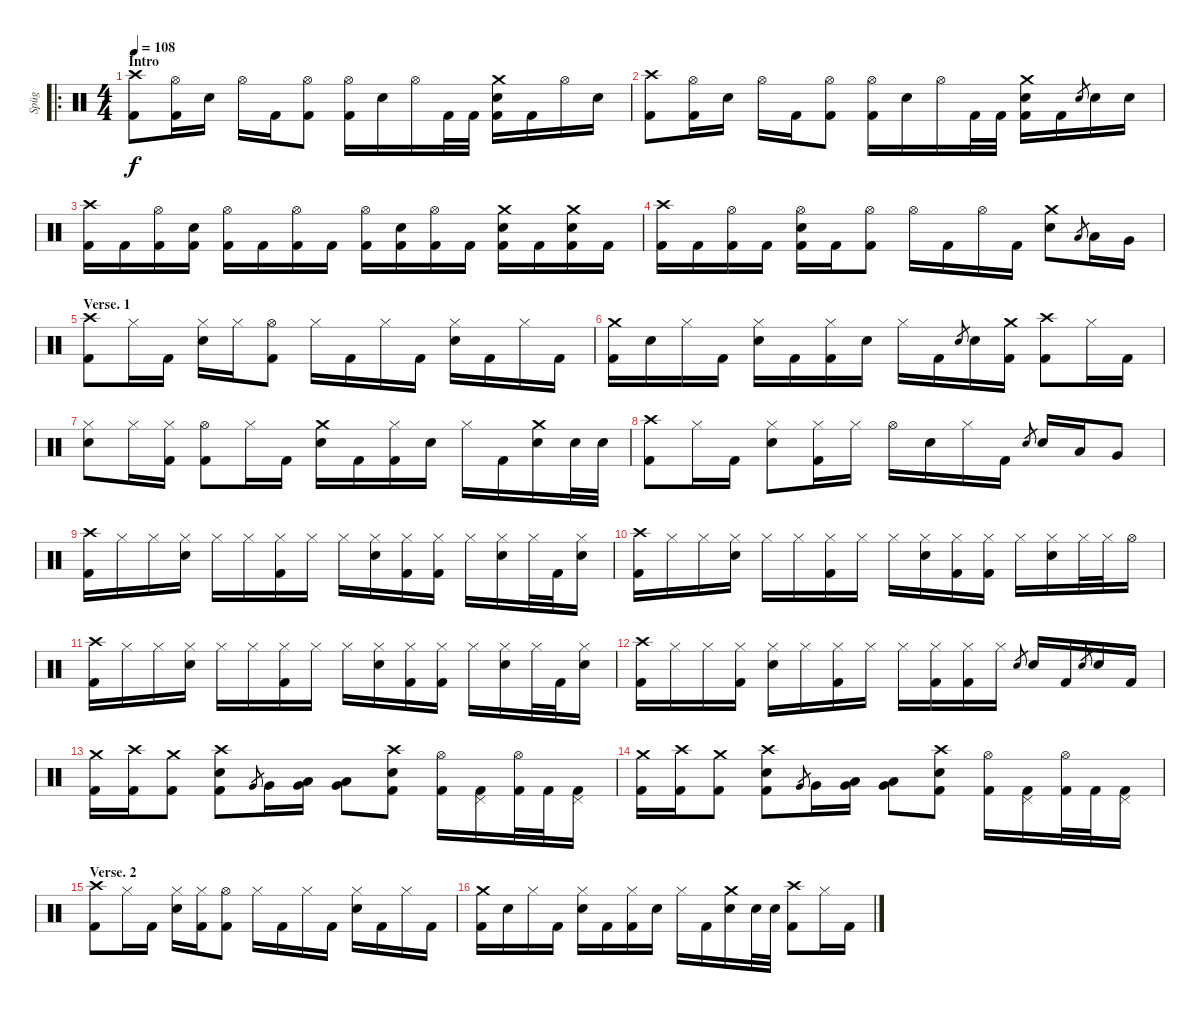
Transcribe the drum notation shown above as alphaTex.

\track ("Spüg" "Spüg") {instrument percussion}
\staff {score}
\articulation defaults
\ro
\ts (4 4)
\section ("" "Intro")
\tempo 108
\tempo 86
\tempo 108
\clef neutral
\ks c
("Crash high (hit)" "Kick (hit) 2").8{dy f} ("Hi-Hat (open)" "Kick (hit) 2").16 "Electric Snare (hit)".16 "Hi-Hat (open)".16 "Kick (hit) 2".16 ("Hi-Hat (open)" "Kick (hit) 2").8 ("Hi-Hat (open)" "Kick (hit) 2").16 "Electric Snare (hit)".16 "Hi-Hat (open)".16 "Kick (hit) 2".32 "Kick (hit) 2".32 ("Crash medium (hit)" "Electric Snare (hit)" "Kick (hit) 2").16 "Kick (hit) 2".16 "Hi-Hat (open)".16 "Electric Snare (hit)".16 |
("Crash high (hit)" "Kick (hit) 2").8 ("Hi-Hat (open)" "Kick (hit) 2").16 "Electric Snare (hit)".16 "Hi-Hat (open)".16 "Kick (hit) 2".16 ("Hi-Hat (open)" "Kick (hit) 2").8 ("Hi-Hat (open)" "Kick (hit) 2").16 "Electric Snare (hit)".16 "Hi-Hat (open)".16 "Kick (hit) 2".32 "Kick (hit) 2".32 ("Crash medium (hit)" "Electric Snare (hit)" "Kick (hit) 2").16 "Kick (hit) 2".16 "Electric Snare (hit)".8{gr} "Electric Snare (hit)".16 "Electric Snare (hit)".16 |
("Crash high (hit)" "Kick (hit) 2").16 "Kick (hit) 2".16 ("Hi-Hat (open)" "Kick (hit) 2").16 ("Electric Snare (hit)" "Kick (hit) 2").16 ("Hi-Hat (open)" "Kick (hit) 2").16 "Kick (hit) 2".16 ("Hi-Hat (open)" "Kick (hit) 2").16 "Kick (hit) 2".16 ("Hi-Hat (open)" "Kick (hit) 2").16 ("Electric Snare (hit)" "Kick (hit) 2").16 ("Hi-Hat (open)" "Kick (hit) 2").16 "Kick (hit) 2".16 ("Crash medium (hit)" "Electric Snare (hit)" "Kick (hit) 2").16 "Kick (hit) 2".16 ("Crash medium (hit)" "Electric Snare (hit)" "Kick (hit) 2").16 "Kick (hit) 2".16 |
("Crash high (hit)" "Kick (hit) 2").16 "Kick (hit) 2".16 ("Hi-Hat (open)" "Kick (hit) 2").16 "Kick (hit) 2".16 ("Hi-Hat (open)" "Electric Snare (hit)" "Kick (hit) 2").16 "Kick (hit) 2".16 ("Hi-Hat (open)" "Kick (hit) 2").8 "Hi-Hat (open)".16 "Kick (hit) 2".16 "Hi-Hat (open)".16 "Kick (hit) 2".16 ("Crash medium (hit)" "Electric Snare (hit)").8 "Low Tom (hit)".8{gr} "Low Tom (hit)".16 "Very Low Tom (hit)".16 |
\section ("" "Verse. 1")
("Crash high (hit)" "Kick (hit) 2").8 "Hi-Hat (closed)".16 "Kick (hit) 2".16 ("Hi-Hat (closed)" "Electric Snare (hit)").16 "Hi-Hat (closed)".16 ("Hi-Hat (open)" "Kick (hit) 2").8 "Hi-Hat (closed)".16 "Kick (hit) 2".16 "Hi-Hat (closed)".16 "Kick (hit) 2".16 ("Hi-Hat (closed)" "Electric Snare (hit)").16 "Kick (hit) 2".16 "Hi-Hat (closed)".16 "Kick (hit) 2".16 |
("Crash medium (hit)" "Kick (hit) 2").16 "Electric Snare (hit)".16 "Hi-Hat (closed)".16 "Kick (hit) 2".16 ("Hi-Hat (closed)" "Electric Snare (hit)").16 "Kick (hit) 2".16 ("Hi-Hat (closed)" "Kick (hit) 2").16 "Electric Snare (hit)".16 "Hi-Hat (closed)".16 "Kick (hit) 2".16 "Electric Snare (hit)".8{gr} "Electric Snare (hit)".16 ("Crash medium (hit)" "Kick (hit) 2").16 ("Crash high (hit)" "Kick (hit) 2").8 "Hi-Hat (closed)".16 "Kick (hit) 2".16 |
("Hi-Hat (closed)" "Electric Snare (hit)").8 "Hi-Hat (closed)".16 ("Hi-Hat (closed)" "Kick (hit) 2").16 ("Hi-Hat (open)" "Kick (hit) 2").8 "Hi-Hat (closed)".16 "Kick (hit) 2".16 ("Crash medium (hit)" "Electric Snare (hit)").16 "Kick (hit) 2".16 ("Hi-Hat (closed)" "Kick (hit) 2").16 "Electric Snare (hit)".16 "Hi-Hat (closed)".16 "Kick (hit) 2".16 ("Crash medium (hit)" "Electric Snare (hit)").16 "Electric Snare (hit)".32 "Electric Snare (hit)".32 |
("Crash high (hit)" "Kick (hit) 2").8 "Hi-Hat (closed)".16 "Kick (hit) 2".16 ("Hi-Hat (closed)" "Electric Snare (hit)").8 ("Hi-Hat (closed)" "Kick (hit) 2").16 "Hi-Hat (closed)".16 "Hi-Hat (open)".16 "Electric Snare (hit)".16 "Hi-Hat (closed)".16 "Kick (hit) 2".16 "Electric Snare (hit)".8{gr} "Electric Snare (hit)".16 "Low Tom (hit)".16 "Very Low Tom (hit)".8 |
("Crash high (hit)" "Kick (hit) 2").16 "Hi-Hat (closed)".16 "Hi-Hat (closed)".16 ("Hi-Hat (closed)" "Electric Snare (hit)").16 "Hi-Hat (closed)".16 "Hi-Hat (closed)".16 ("Hi-Hat (closed)" "Kick (hit) 2").16 "Hi-Hat (closed)".16 "Hi-Hat (closed)".16 ("Hi-Hat (closed)" "Electric Snare (hit)").16 ("Hi-Hat (closed)" "Kick (hit) 2").16 ("Hi-Hat (closed)" "Kick (hit) 2").16 "Hi-Hat (closed)".16 ("Hi-Hat (closed)" "Electric Snare (hit)").16 "Hi-Hat (closed)".32 "Kick (hit) 2".32 ("Hi-Hat (closed)" "Electric Snare (hit)").16 |
("Crash high (hit)" "Kick (hit) 2").16 "Hi-Hat (closed)".16 "Hi-Hat (closed)".16 ("Hi-Hat (closed)" "Electric Snare (hit)").16 "Hi-Hat (closed)".16 "Hi-Hat (closed)".16 ("Hi-Hat (closed)" "Kick (hit) 2").16 "Hi-Hat (closed)".16 "Hi-Hat (closed)".16 ("Hi-Hat (closed)" "Electric Snare (hit)").16 ("Hi-Hat (closed)" "Kick (hit) 2").16 ("Hi-Hat (closed)" "Kick (hit) 2").16 "Hi-Hat (closed)".16 ("Hi-Hat (closed)" "Electric Snare (hit)").16 "Hi-Hat (closed)".32 "Hi-Hat (closed)".32 "Hi-Hat (open)".16 |
("Crash high (hit)" "Kick (hit) 2").16 "Hi-Hat (closed)".16 "Hi-Hat (closed)".16 ("Hi-Hat (closed)" "Electric Snare (hit)").16 "Hi-Hat (closed)".16 "Hi-Hat (closed)".16 ("Hi-Hat (closed)" "Kick (hit) 2").16 "Hi-Hat (closed)".16 "Hi-Hat (closed)".16 ("Hi-Hat (closed)" "Electric Snare (hit)").16 ("Hi-Hat (closed)" "Kick (hit) 2").16 ("Hi-Hat (closed)" "Kick (hit) 2").16 "Hi-Hat (closed)".16 ("Hi-Hat (closed)" "Electric Snare (hit)").16 "Hi-Hat (closed)".32 "Kick (hit) 2".32 ("Hi-Hat (closed)" "Electric Snare (hit)").16 |
("Crash high (hit)" "Kick (hit) 2").16 "Hi-Hat (closed)".16 "Hi-Hat (closed)".16 ("Hi-Hat (closed)" "Kick (hit) 2").16 ("Hi-Hat (closed)" "Electric Snare (hit)").16 "Hi-Hat (closed)".16 ("Hi-Hat (closed)" "Kick (hit) 2").16 "Hi-Hat (closed)".16 "Hi-Hat (closed)".16 ("Hi-Hat (closed)" "Kick (hit) 2").16 ("Hi-Hat (closed)" "Kick (hit) 2").16 "Hi-Hat (closed)".16 "Electric Snare (hit)".8{gr} "Electric Snare (hit)".16 "Kick (hit) 2".16 "Electric Snare (hit)".8{gr} "Electric Snare (hit)".16 "Kick (hit) 2".16 |
("Crash medium (hit)" "Kick (hit) 2").16 ("Crash high (hit)" "Kick (hit) 2").16 ("Crash medium (hit)" "Kick (hit) 2").8 ("Crash high (hit)" "Electric Snare (hit)" "Kick (hit) 2").8 "Very Low Tom (hit)".8{gr} "Very Low Tom (hit)".16 ("Very Low Tom (hit)" "Low Floor Tom (hit)").16 ("Very Low Tom (hit)" "Low Floor Tom (hit)").8 ("Crash high (hit)" "Electric Snare (hit)" "Kick (hit) 2").8 ("Hi-Hat (open)" "Kick (hit) 2").16 ("Pedal Hi-Hat (hit)" "Kick (hit) 2").16 ("Hi-Hat (open)" "Kick (hit) 2").32 "Kick (hit) 2".32 ("Pedal Hi-Hat (hit)" "Kick (hit) 2").16 |
("Crash medium (hit)" "Kick (hit) 2").16 ("Crash high (hit)" "Kick (hit) 2").16 ("Crash medium (hit)" "Kick (hit) 2").8 ("Crash high (hit)" "Electric Snare (hit)" "Kick (hit) 2").8 "Very Low Tom (hit)".8{gr} "Very Low Tom (hit)".16 ("Very Low Tom (hit)" "Low Floor Tom (hit)").16 ("Very Low Tom (hit)" "Low Floor Tom (hit)").8 ("Crash high (hit)" "Electric Snare (hit)" "Kick (hit) 2").8 ("Hi-Hat (open)" "Kick (hit) 2").16 ("Pedal Hi-Hat (hit)" "Kick (hit) 2").16 ("Hi-Hat (open)" "Kick (hit) 2").32 "Kick (hit) 2".32 ("Pedal Hi-Hat (hit)" "Kick (hit) 2").16 |
\section ("" "Verse. 2")
("Crash high (hit)" "Kick (hit) 2").8 "Hi-Hat (closed)".16 "Kick (hit) 2".16 ("Hi-Hat (closed)" "Electric Snare (hit)").16 ("Hi-Hat (closed)" "Kick (hit) 2").16 ("Hi-Hat (open)" "Kick (hit) 2").8 "Hi-Hat (closed)".16 "Kick (hit) 2".16 "Hi-Hat (closed)".16 "Kick (hit) 2".16 ("Hi-Hat (closed)" "Electric Snare (hit)").16 "Kick (hit) 2".16 "Hi-Hat (closed)".16 "Kick (hit) 2".16 |
("Crash medium (hit)" "Kick (hit) 2").16 "Electric Snare (hit)".16 "Hi-Hat (closed)".16 "Kick (hit) 2".16 ("Hi-Hat (closed)" "Electric Snare (hit)").16 "Kick (hit) 2".16 ("Hi-Hat (closed)" "Kick (hit) 2").16 "Electric Snare (hit)".16 "Hi-Hat (closed)".16 "Kick (hit) 2".16 ("Crash medium (hit)" "Electric Snare (hit)").16 "Electric Snare (hit)".32 "Electric Snare (hit)".32 ("Crash high (hit)" "Kick (hit) 2").8 "Hi-Hat (closed)".16 "Kick (hit) 2".16
